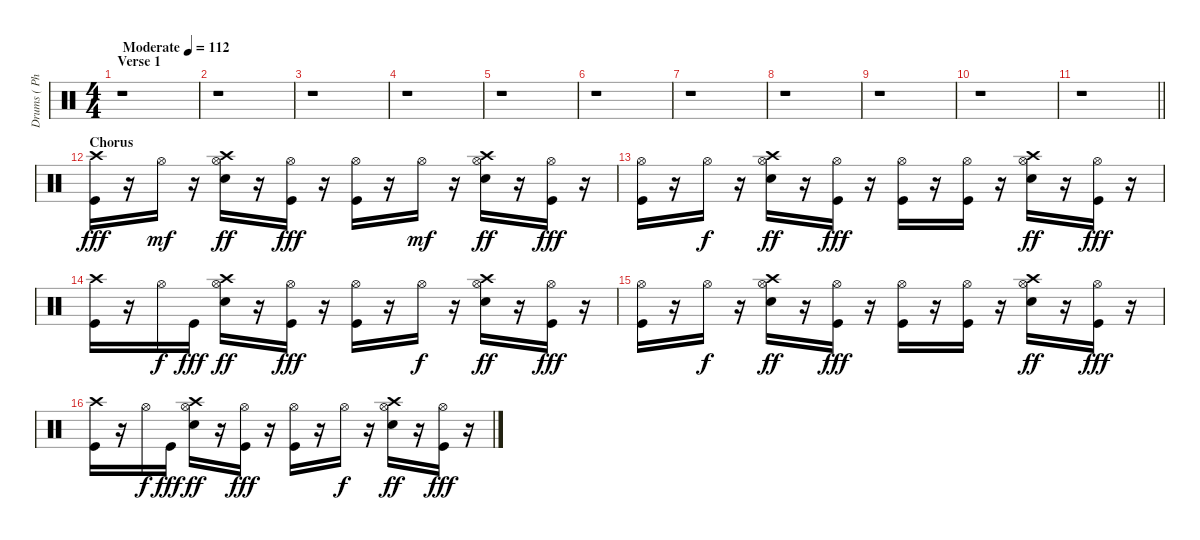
\track ("Drums ( Phillip Selway )" "Drums ( Ph") {instrument percussion}
\staff {score}
\articulation defaults
\ts (4 4)
\section ("" "Verse 1")
\tempo (112 "Moderate")
\clef neutral
\ks c
r.1{dy fff} |
r.1 |
r.1 |
r.1 |
r.1 |
r.1 |
r.1 |
r.1 |
r.1 |
r.1 |
\barLineRight lightlight
r.1 |
\section ("" "Chorus")
("Crash high (hit)" "Kick (hit)").16 r.16 "Hi-Hat (open)".16{dy mf} r.16 ("Crash high (hit)" "Hi-Hat (open)" "Electric Snare (hit)").16{dy ff} r.16 ("Hi-Hat (open)" "Kick (hit)").16{dy fff} r.16 ("Hi-Hat (open)" "Kick (hit)").16 r.16 "Hi-Hat (open)".16{dy mf} r.16 ("Crash high (hit)" "Hi-Hat (open)" "Electric Snare (hit)").16{dy ff} r.16 ("Hi-Hat (open)" "Kick (hit)").16{dy fff} r.16 |
("Hi-Hat (open)" "Kick (hit)").16 r.16 "Hi-Hat (open)".16{dy f} r.16 ("Crash high (hit)" "Hi-Hat (open)" "Electric Snare (hit)").16{dy ff} r.16 ("Hi-Hat (open)" "Kick (hit)").16{dy fff} r.16 ("Hi-Hat (open)" "Kick (hit)").16 r.16 ("Hi-Hat (open)" "Kick (hit)").16 r.16 ("Crash high (hit)" "Hi-Hat (open)" "Electric Snare (hit)").16{dy ff} r.16 ("Hi-Hat (open)" "Kick (hit)").16{dy fff} r.16 |
("Crash high (hit)" "Kick (hit)").16 r.16 "Hi-Hat (open)".16{dy f} "Kick (hit)".16{dy fff} ("Crash high (hit)" "Hi-Hat (open)" "Electric Snare (hit)").16{dy ff} r.16 ("Hi-Hat (open)" "Kick (hit)").16{dy fff} r.16 ("Hi-Hat (open)" "Kick (hit)").16 r.16 "Hi-Hat (open)".16{dy f} r.16 ("Crash high (hit)" "Hi-Hat (open)" "Electric Snare (hit)").16{dy ff} r.16 ("Hi-Hat (open)" "Kick (hit)").16{dy fff} r.16 |
("Hi-Hat (open)" "Kick (hit)").16 r.16 "Hi-Hat (open)".16{dy f} r.16 ("Crash high (hit)" "Hi-Hat (open)" "Electric Snare (hit)").16{dy ff} r.16 ("Hi-Hat (open)" "Kick (hit)").16{dy fff} r.16 ("Hi-Hat (open)" "Kick (hit)").16 r.16 ("Hi-Hat (open)" "Kick (hit)").16 r.16 ("Crash high (hit)" "Hi-Hat (open)" "Electric Snare (hit)").16{dy ff} r.16 ("Hi-Hat (open)" "Kick (hit)").16{dy fff} r.16 |
("Crash high (hit)" "Kick (hit)").16 r.16 "Hi-Hat (open)".16{dy f} "Kick (hit)".16{dy fff} ("Crash high (hit)" "Hi-Hat (open)" "Electric Snare (hit)").16{dy ff} r.16 ("Hi-Hat (open)" "Kick (hit)").16{dy fff} r.16 ("Hi-Hat (open)" "Kick (hit)").16 r.16 "Hi-Hat (open)".16{dy f} r.16 ("Crash high (hit)" "Hi-Hat (open)" "Electric Snare (hit)").16{dy ff} r.16 ("Hi-Hat (open)" "Kick (hit)").16{dy fff} r.16
